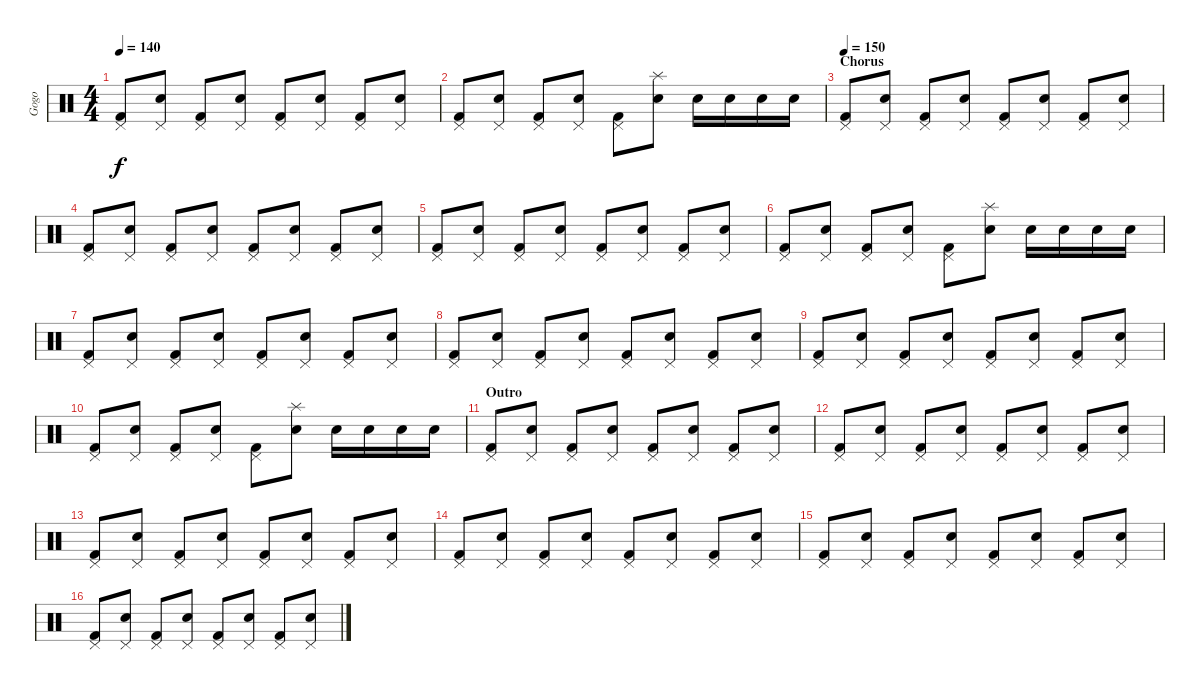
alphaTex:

\track ("Gogo" "Gogo") {instrument percussion}
\staff {score}
\articulation defaults
\ts (4 4)
\tempo 140
\clef neutral
\ks c
("Pedal Hi-Hat (hit)" "Kick (hit) 2").8{dy f} ("Pedal Hi-Hat (hit)" "Electric Snare (hit)").8 ("Pedal Hi-Hat (hit)" "Kick (hit) 2").8 ("Pedal Hi-Hat (hit)" "Electric Snare (hit)").8 ("Pedal Hi-Hat (hit)" "Kick (hit) 2").8 ("Pedal Hi-Hat (hit)" "Electric Snare (hit)").8 ("Pedal Hi-Hat (hit)" "Kick (hit) 2").8 ("Pedal Hi-Hat (hit)" "Electric Snare (hit)").8 |
("Pedal Hi-Hat (hit)" "Kick (hit) 2").8 ("Pedal Hi-Hat (hit)" "Electric Snare (hit)").8 ("Pedal Hi-Hat (hit)" "Kick (hit) 2").8 ("Pedal Hi-Hat (hit)" "Electric Snare (hit)").8 ("Pedal Hi-Hat (hit)" "Kick (hit) 2").8 ("Splash (hit)" "Electric Snare (hit)").8 "Electric Snare (hit)".16 "Electric Snare (hit)".16 "Electric Snare (hit)".16 "Electric Snare (hit)".16 |
\section ("" "Chorus")
\tempo 150
("Pedal Hi-Hat (hit)" "Kick (hit) 2").8 ("Pedal Hi-Hat (hit)" "Electric Snare (hit)").8 ("Pedal Hi-Hat (hit)" "Kick (hit) 2").8 ("Pedal Hi-Hat (hit)" "Electric Snare (hit)").8 ("Pedal Hi-Hat (hit)" "Kick (hit) 2").8 ("Pedal Hi-Hat (hit)" "Electric Snare (hit)").8 ("Pedal Hi-Hat (hit)" "Kick (hit) 2").8 ("Pedal Hi-Hat (hit)" "Electric Snare (hit)").8 |
("Pedal Hi-Hat (hit)" "Kick (hit) 2").8 ("Pedal Hi-Hat (hit)" "Electric Snare (hit)").8 ("Pedal Hi-Hat (hit)" "Kick (hit) 2").8 ("Pedal Hi-Hat (hit)" "Electric Snare (hit)").8 ("Pedal Hi-Hat (hit)" "Kick (hit) 2").8 ("Pedal Hi-Hat (hit)" "Electric Snare (hit)").8 ("Pedal Hi-Hat (hit)" "Kick (hit) 2").8 ("Pedal Hi-Hat (hit)" "Electric Snare (hit)").8 |
("Pedal Hi-Hat (hit)" "Kick (hit) 2").8 ("Pedal Hi-Hat (hit)" "Electric Snare (hit)").8 ("Pedal Hi-Hat (hit)" "Kick (hit) 2").8 ("Pedal Hi-Hat (hit)" "Electric Snare (hit)").8 ("Pedal Hi-Hat (hit)" "Kick (hit) 2").8 ("Pedal Hi-Hat (hit)" "Electric Snare (hit)").8 ("Pedal Hi-Hat (hit)" "Kick (hit) 2").8 ("Pedal Hi-Hat (hit)" "Electric Snare (hit)").8 |
("Pedal Hi-Hat (hit)" "Kick (hit) 2").8 ("Pedal Hi-Hat (hit)" "Electric Snare (hit)").8 ("Pedal Hi-Hat (hit)" "Kick (hit) 2").8 ("Pedal Hi-Hat (hit)" "Electric Snare (hit)").8 ("Pedal Hi-Hat (hit)" "Kick (hit) 2").8 ("Splash (hit)" "Electric Snare (hit)").8 "Electric Snare (hit)".16 "Electric Snare (hit)".16 "Electric Snare (hit)".16 "Electric Snare (hit)".16 |
("Pedal Hi-Hat (hit)" "Kick (hit) 2").8 ("Pedal Hi-Hat (hit)" "Electric Snare (hit)").8 ("Pedal Hi-Hat (hit)" "Kick (hit) 2").8 ("Pedal Hi-Hat (hit)" "Electric Snare (hit)").8 ("Pedal Hi-Hat (hit)" "Kick (hit) 2").8 ("Pedal Hi-Hat (hit)" "Electric Snare (hit)").8 ("Pedal Hi-Hat (hit)" "Kick (hit) 2").8 ("Pedal Hi-Hat (hit)" "Electric Snare (hit)").8 |
("Pedal Hi-Hat (hit)" "Kick (hit) 2").8 ("Pedal Hi-Hat (hit)" "Electric Snare (hit)").8 ("Pedal Hi-Hat (hit)" "Kick (hit) 2").8 ("Pedal Hi-Hat (hit)" "Electric Snare (hit)").8 ("Pedal Hi-Hat (hit)" "Kick (hit) 2").8 ("Pedal Hi-Hat (hit)" "Electric Snare (hit)").8 ("Pedal Hi-Hat (hit)" "Kick (hit) 2").8 ("Pedal Hi-Hat (hit)" "Electric Snare (hit)").8 |
("Pedal Hi-Hat (hit)" "Kick (hit) 2").8 ("Pedal Hi-Hat (hit)" "Electric Snare (hit)").8 ("Pedal Hi-Hat (hit)" "Kick (hit) 2").8 ("Pedal Hi-Hat (hit)" "Electric Snare (hit)").8 ("Pedal Hi-Hat (hit)" "Kick (hit) 2").8 ("Pedal Hi-Hat (hit)" "Electric Snare (hit)").8 ("Pedal Hi-Hat (hit)" "Kick (hit) 2").8 ("Pedal Hi-Hat (hit)" "Electric Snare (hit)").8 |
("Pedal Hi-Hat (hit)" "Kick (hit) 2").8 ("Pedal Hi-Hat (hit)" "Electric Snare (hit)").8 ("Pedal Hi-Hat (hit)" "Kick (hit) 2").8 ("Pedal Hi-Hat (hit)" "Electric Snare (hit)").8 ("Pedal Hi-Hat (hit)" "Kick (hit) 2").8 ("Splash (hit)" "Electric Snare (hit)").8 "Electric Snare (hit)".16 "Electric Snare (hit)".16 "Electric Snare (hit)".16 "Electric Snare (hit)".16 |
\section ("" "Outro")
("Pedal Hi-Hat (hit)" "Kick (hit) 2").8 ("Pedal Hi-Hat (hit)" "Electric Snare (hit)").8 ("Pedal Hi-Hat (hit)" "Kick (hit) 2").8 ("Pedal Hi-Hat (hit)" "Electric Snare (hit)").8 ("Pedal Hi-Hat (hit)" "Kick (hit) 2").8 ("Pedal Hi-Hat (hit)" "Electric Snare (hit)").8 ("Pedal Hi-Hat (hit)" "Kick (hit) 2").8 ("Pedal Hi-Hat (hit)" "Electric Snare (hit)").8 |
("Pedal Hi-Hat (hit)" "Kick (hit) 2").8 ("Pedal Hi-Hat (hit)" "Electric Snare (hit)").8 ("Pedal Hi-Hat (hit)" "Kick (hit) 2").8 ("Pedal Hi-Hat (hit)" "Electric Snare (hit)").8 ("Pedal Hi-Hat (hit)" "Kick (hit) 2").8 ("Pedal Hi-Hat (hit)" "Electric Snare (hit)").8 ("Pedal Hi-Hat (hit)" "Kick (hit) 2").8 ("Pedal Hi-Hat (hit)" "Electric Snare (hit)").8 |
("Pedal Hi-Hat (hit)" "Kick (hit) 2").8 ("Pedal Hi-Hat (hit)" "Electric Snare (hit)").8 ("Pedal Hi-Hat (hit)" "Kick (hit) 2").8 ("Pedal Hi-Hat (hit)" "Electric Snare (hit)").8 ("Pedal Hi-Hat (hit)" "Kick (hit) 2").8 ("Pedal Hi-Hat (hit)" "Electric Snare (hit)").8 ("Pedal Hi-Hat (hit)" "Kick (hit) 2").8 ("Pedal Hi-Hat (hit)" "Electric Snare (hit)").8 |
("Pedal Hi-Hat (hit)" "Kick (hit) 2").8 ("Pedal Hi-Hat (hit)" "Electric Snare (hit)").8 ("Pedal Hi-Hat (hit)" "Kick (hit) 2").8 ("Pedal Hi-Hat (hit)" "Electric Snare (hit)").8 ("Pedal Hi-Hat (hit)" "Kick (hit) 2").8 ("Pedal Hi-Hat (hit)" "Electric Snare (hit)").8 ("Pedal Hi-Hat (hit)" "Kick (hit) 2").8 ("Pedal Hi-Hat (hit)" "Electric Snare (hit)").8 |
("Pedal Hi-Hat (hit)" "Kick (hit) 2").8 ("Pedal Hi-Hat (hit)" "Electric Snare (hit)").8 ("Pedal Hi-Hat (hit)" "Kick (hit) 2").8 ("Pedal Hi-Hat (hit)" "Electric Snare (hit)").8 ("Pedal Hi-Hat (hit)" "Kick (hit) 2").8 ("Pedal Hi-Hat (hit)" "Electric Snare (hit)").8 ("Pedal Hi-Hat (hit)" "Kick (hit) 2").8 ("Pedal Hi-Hat (hit)" "Electric Snare (hit)").8 |
("Pedal Hi-Hat (hit)" "Kick (hit) 2").8 ("Pedal Hi-Hat (hit)" "Electric Snare (hit)").8 ("Pedal Hi-Hat (hit)" "Kick (hit) 2").8 ("Pedal Hi-Hat (hit)" "Electric Snare (hit)").8 ("Pedal Hi-Hat (hit)" "Kick (hit) 2").8 ("Pedal Hi-Hat (hit)" "Electric Snare (hit)").8 ("Pedal Hi-Hat (hit)" "Kick (hit) 2").8 ("Pedal Hi-Hat (hit)" "Electric Snare (hit)").8
